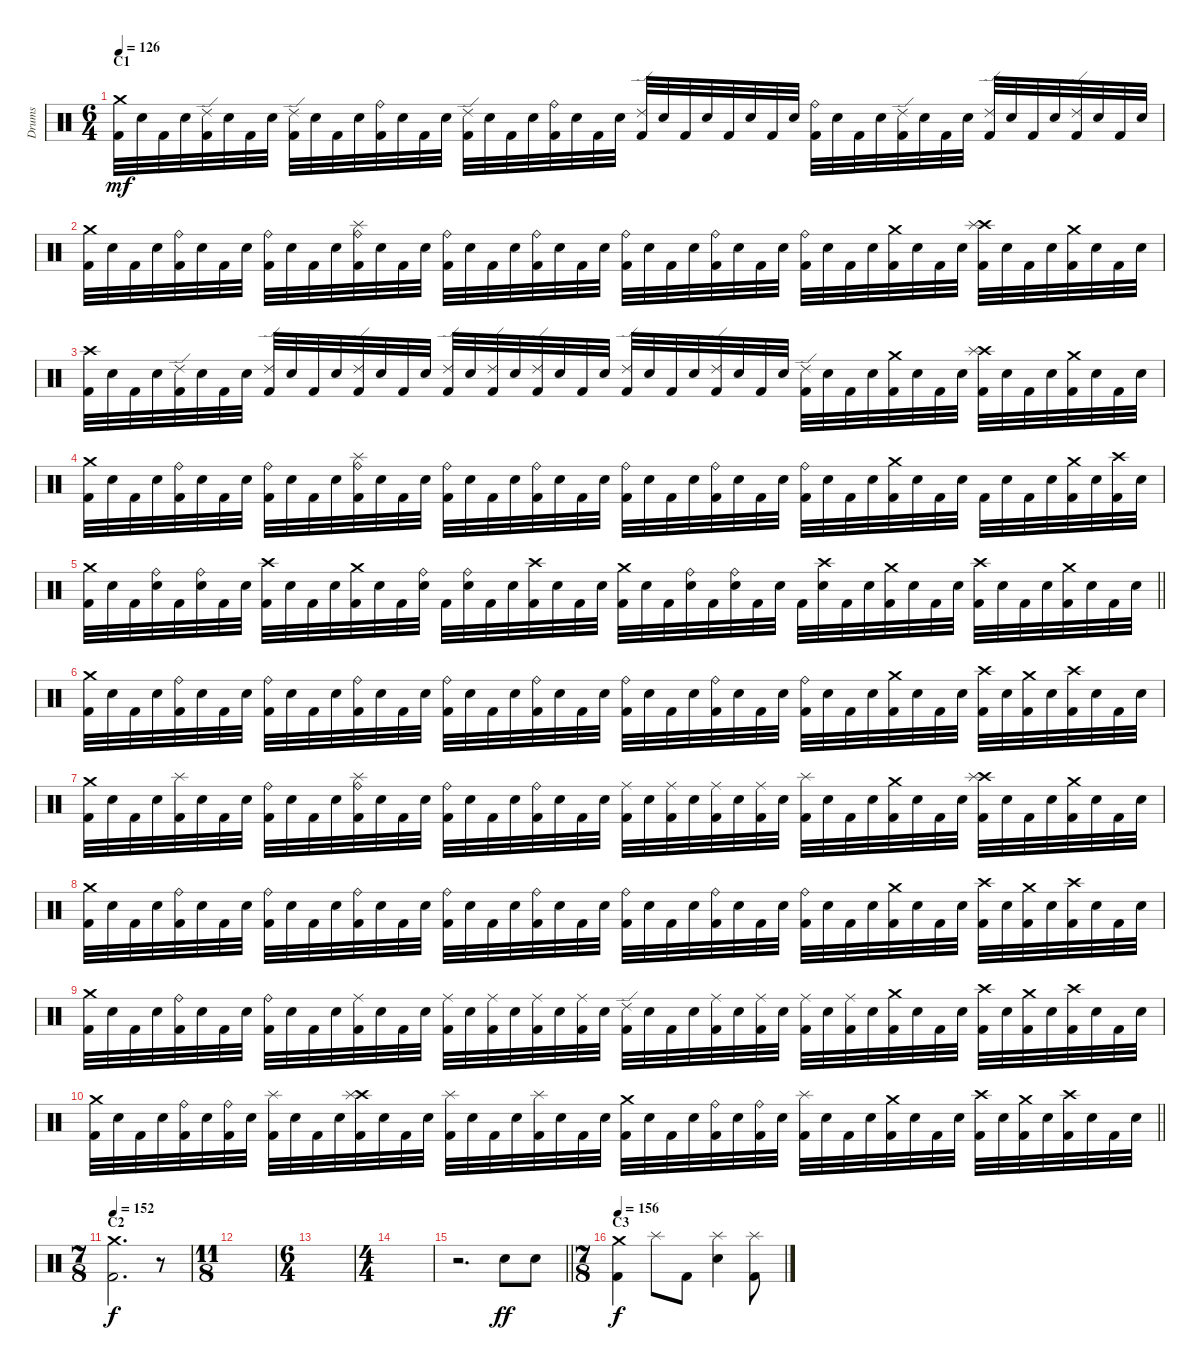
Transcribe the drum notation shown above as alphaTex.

\track ("Drums" "Drums") {instrument percussion}
\staff {score}
\articulation defaults
\ts (6 4)
\section ("" "C1")
\tempo 126
\clef neutral
\ks c
("Crash medium (hit)" "Kick (hit) 2").32{dy mf} "Electric Snare (hit)".32 "Kick (hit) 2".32 "Electric Snare (hit)".32 ("Ride (edge) 2" "Kick (hit) 2").32 "Electric Snare (hit)".32 "Kick (hit) 2".32 "Electric Snare (hit)".32 ("Ride (edge) 2" "Kick (hit) 2").32 "Electric Snare (hit)".32 "Kick (hit) 2".32 "Electric Snare (hit)".32 ("Ride (bell)" "Kick (hit) 2").32 "Electric Snare (hit)".32 "Kick (hit) 2".32 "Electric Snare (hit)".32 ("Ride (edge) 2" "Kick (hit) 2").32 "Electric Snare (hit)".32 "Kick (hit) 2".32 "Electric Snare (hit)".32 ("Ride (bell)" "Kick (hit) 2").32 "Electric Snare (hit)".32 "Kick (hit) 2".32 "Electric Snare (hit)".32 ("Ride (edge) 2" "Kick (hit) 2").32 "Electric Snare (hit)".32 "Kick (hit) 2".32 "Electric Snare (hit)".32 "Kick (hit) 2".32 "Electric Snare (hit)".32 "Kick (hit) 2".32 "Electric Snare (hit)".32 ("Ride (bell)" "Kick (hit) 2").32 "Electric Snare (hit)".32 "Kick (hit) 2".32 "Electric Snare (hit)".32 ("Ride (edge) 2" "Kick (hit) 2").32 "Electric Snare (hit)".32 "Kick (hit) 2".32 "Electric Snare (hit)".32 ("Ride (edge) 2" "Kick (hit) 2").32 "Electric Snare (hit)".32 "Kick (hit) 2".32 "Electric Snare (hit)".32 ("Ride (edge) 2" "Kick (hit) 2").32 "Electric Snare (hit)".32 "Kick (hit) 2".32 "Electric Snare (hit)".32 |
("Crash medium (hit)" "Kick (hit) 2").32 "Electric Snare (hit)".32 "Kick (hit) 2".32 "Electric Snare (hit)".32 ("Ride (bell)" "Kick (hit) 2").32 "Electric Snare (hit)".32 "Kick (hit) 2".32 "Electric Snare (hit)".32 ("Ride (bell)" "Kick (hit) 2").32 "Electric Snare (hit)".32 "Kick (hit) 2".32 "Electric Snare (hit)".32 ("Ride (bell)" "Splash (hit)" "Kick (hit) 2").32 "Electric Snare (hit)".32 "Kick (hit) 2".32 "Electric Snare (hit)".32 ("Ride (bell)" "Kick (hit) 2").32 "Electric Snare (hit)".32 "Kick (hit) 2".32 "Electric Snare (hit)".32 ("Ride (bell)" "Kick (hit) 2").32 "Electric Snare (hit)".32 "Kick (hit) 2".32 "Electric Snare (hit)".32 ("Ride (bell)" "Kick (hit) 2").32 "Electric Snare (hit)".32 "Kick (hit) 2".32 "Electric Snare (hit)".32 ("Ride (bell)" "Kick (hit) 2").32 "Electric Snare (hit)".32 "Kick (hit) 2".32 "Electric Snare (hit)".32 ("Ride (bell)" "Kick (hit) 2").32 "Electric Snare (hit)".32 "Kick (hit) 2".32 "Electric Snare (hit)".32 ("Crash medium (hit)" "Kick (hit) 2").32 "Electric Snare (hit)".32 "Kick (hit) 2".32 "Electric Snare (hit)".32 ("Crash high (hit)" "Splash (hit)" "Kick (hit) 2").32 "Electric Snare (hit)".32 "Kick (hit) 2".32 "Electric Snare (hit)".32 ("Crash medium (hit)" "Kick (hit) 2").32 "Electric Snare (hit)".32 "Kick (hit) 2".32 "Electric Snare (hit)".32 |
("Crash high (hit)" "Kick (hit) 2").32 "Electric Snare (hit)".32 "Kick (hit) 2".32 "Electric Snare (hit)".32 ("Ride (edge) 2" "Kick (hit) 2").32 "Electric Snare (hit)".32 "Kick (hit) 2".32 "Electric Snare (hit)".32 ("Ride (edge) 2" "Kick (hit) 2").32 "Electric Snare (hit)".32 "Kick (hit) 2".32 "Electric Snare (hit)".32 ("Ride (edge) 2" "Kick (hit) 2").32 "Electric Snare (hit)".32 "Kick (hit) 2".32 "Electric Snare (hit)".32 ("Ride (edge) 2" "Kick (hit) 2").32 "Electric Snare (hit)".32 ("Ride (edge) 2" "Kick (hit) 2").32 "Electric Snare (hit)".32 ("Ride (edge) 2" "Kick (hit) 2").32 "Electric Snare (hit)".32 "Kick (hit) 2".32 "Electric Snare (hit)".32 ("Ride (edge) 2" "Kick (hit) 2").32 "Electric Snare (hit)".32 "Kick (hit) 2".32 "Electric Snare (hit)".32 ("Ride (edge) 2" "Kick (hit) 2").32 "Electric Snare (hit)".32 "Kick (hit) 2".32 "Electric Snare (hit)".32 ("Ride (edge) 2" "Kick (hit) 2").32 "Electric Snare (hit)".32 "Kick (hit) 2".32 "Electric Snare (hit)".32 ("Crash medium (hit)" "Kick (hit) 2").32 "Electric Snare (hit)".32 "Kick (hit) 2".32 "Electric Snare (hit)".32 ("Crash high (hit)" "Splash (hit)" "Kick (hit) 2").32 "Electric Snare (hit)".32 "Kick (hit) 2".32 "Electric Snare (hit)".32 ("Crash medium (hit)" "Kick (hit) 2").32 "Electric Snare (hit)".32 "Kick (hit) 2".32 "Electric Snare (hit)".32 |
("Crash medium (hit)" "Kick (hit) 2").32 "Electric Snare (hit)".32 "Kick (hit) 2".32 "Electric Snare (hit)".32 ("Ride (bell)" "Kick (hit) 2").32 "Electric Snare (hit)".32 "Kick (hit) 2".32 "Electric Snare (hit)".32 ("Ride (bell)" "Kick (hit) 2").32 "Electric Snare (hit)".32 "Kick (hit) 2".32 "Electric Snare (hit)".32 ("Ride (bell)" "Splash (hit)" "Kick (hit) 2").32 "Electric Snare (hit)".32 "Kick (hit) 2".32 "Electric Snare (hit)".32 ("Ride (bell)" "Kick (hit) 2").32 "Electric Snare (hit)".32 "Kick (hit) 2".32 "Electric Snare (hit)".32 ("Ride (bell)" "Kick (hit) 2").32 "Electric Snare (hit)".32 "Kick (hit) 2".32 "Electric Snare (hit)".32 ("Ride (bell)" "Kick (hit) 2").32 "Electric Snare (hit)".32 "Kick (hit) 2".32 "Electric Snare (hit)".32 ("Ride (bell)" "Kick (hit) 2").32 "Electric Snare (hit)".32 "Kick (hit) 2".32 "Electric Snare (hit)".32 ("Ride (bell)" "Kick (hit) 2").32 "Electric Snare (hit)".32 "Kick (hit) 2".32 "Electric Snare (hit)".32 ("Crash medium (hit)" "Kick (hit) 2").32 "Electric Snare (hit)".32 "Kick (hit) 2".32 "Electric Snare (hit)".32 "Kick (hit) 2".32 "Electric Snare (hit)".32 "Kick (hit) 2".32 "Electric Snare (hit)".32 ("Crash medium (hit)" "Kick (hit) 2").32 "Electric Snare (hit)".32 ("Crash high (hit)" "Kick (hit) 2").32 "Electric Snare (hit)".32 |
\barLineRight lightlight
("Crash medium (hit)" "Kick (hit) 2").32 "Electric Snare (hit)".32 "Kick (hit) 2".32 ("Ride (bell)" "Electric Snare (hit)").32 "Kick (hit) 2".32 ("Ride (bell)" "Electric Snare (hit)").32 "Kick (hit) 2".32 "Electric Snare (hit)".32 ("Crash high (hit)" "Kick (hit) 2").32 "Electric Snare (hit)".32 "Kick (hit) 2".32 "Electric Snare (hit)".32 ("Crash medium (hit)" "Kick (hit) 2").32 "Electric Snare (hit)".32 "Kick (hit) 2".32 ("Ride (bell)" "Electric Snare (hit)").32 "Kick (hit) 2".32 ("Ride (bell)" "Electric Snare (hit)").32 "Kick (hit) 2".32 "Electric Snare (hit)".32 ("Crash high (hit)" "Kick (hit) 2").32 "Electric Snare (hit)".32 "Kick (hit) 2".32 "Electric Snare (hit)".32 ("Crash medium (hit)" "Kick (hit) 2").32 "Electric Snare (hit)".32 "Kick (hit) 2".32 ("Ride (bell)" "Electric Snare (hit)").32 "Kick (hit) 2".32 ("Ride (bell)" "Electric Snare (hit)").32 "Kick (hit) 2".32 "Electric Snare (hit)".32 "Kick (hit) 2".32 ("Crash high (hit)" "Electric Snare (hit)").32 "Kick (hit) 2".32 "Electric Snare (hit)".32 ("Crash medium (hit)" "Kick (hit) 2").32 "Electric Snare (hit)".32 "Kick (hit) 2".32 "Electric Snare (hit)".32 ("Crash high (hit)" "Kick (hit) 2").32 "Electric Snare (hit)".32 "Kick (hit) 2".32 "Electric Snare (hit)".32 ("Crash medium (hit)" "Kick (hit) 2").32 "Electric Snare (hit)".32 "Kick (hit) 2".32 "Electric Snare (hit)".32 |
\section ("" "")
("Crash medium (hit)" "Kick (hit) 2").32 "Electric Snare (hit)".32 "Kick (hit) 2".32 "Electric Snare (hit)".32 ("Ride (bell)" "Kick (hit) 2").32 "Electric Snare (hit)".32 "Kick (hit) 2".32 "Electric Snare (hit)".32 ("Ride (bell)" "Kick (hit) 2").32 "Electric Snare (hit)".32 "Kick (hit) 2".32 "Electric Snare (hit)".32 ("Ride (bell)" "Kick (hit) 2").32 "Electric Snare (hit)".32 "Kick (hit) 2".32 "Electric Snare (hit)".32 ("Ride (bell)" "Kick (hit) 2").32 "Electric Snare (hit)".32 "Kick (hit) 2".32 "Electric Snare (hit)".32 ("Ride (bell)" "Kick (hit) 2").32 "Electric Snare (hit)".32 "Kick (hit) 2".32 "Electric Snare (hit)".32 ("Ride (bell)" "Kick (hit) 2").32 "Electric Snare (hit)".32 "Kick (hit) 2".32 "Electric Snare (hit)".32 ("Ride (bell)" "Kick (hit) 2").32 "Electric Snare (hit)".32 "Kick (hit) 2".32 "Electric Snare (hit)".32 ("Ride (bell)" "Kick (hit) 2").32 "Electric Snare (hit)".32 "Kick (hit) 2".32 "Electric Snare (hit)".32 ("Crash medium (hit)" "Kick (hit) 2").32 "Electric Snare (hit)".32 "Kick (hit) 2".32 "Electric Snare (hit)".32 ("Crash high (hit)" "Kick (hit) 2").32 "Electric Snare (hit)".32 ("Crash medium (hit)" "Kick (hit) 2").32 "Electric Snare (hit)".32 ("Crash high (hit)" "Kick (hit) 2").32 "Electric Snare (hit)".32 "Kick (hit) 2".32 "Electric Snare (hit)".32 |
("Crash medium (hit)" "Kick (hit) 2").32 "Electric Snare (hit)".32 "Kick (hit) 2".32 "Electric Snare (hit)".32 ("Splash (hit)" "Kick (hit) 2").32 "Electric Snare (hit)".32 "Kick (hit) 2".32 "Electric Snare (hit)".32 ("Ride (bell)" "Kick (hit) 2").32 "Electric Snare (hit)".32 "Kick (hit) 2".32 "Electric Snare (hit)".32 ("Ride (bell)" "Splash (hit)" "Kick (hit) 2").32 "Electric Snare (hit)".32 "Kick (hit) 2".32 "Electric Snare (hit)".32 ("Ride (bell)" "Kick (hit) 2").32 "Electric Snare (hit)".32 "Kick (hit) 2".32 "Electric Snare (hit)".32 ("Ride (bell)" "Kick (hit) 2").32 "Electric Snare (hit)".32 "Kick (hit) 2".32 "Electric Snare (hit)".32 ("Ride (middle)" "Kick (hit) 2").32 "Electric Snare (hit)".32 ("Ride (middle)" "Kick (hit) 2").32 "Electric Snare (hit)".32 ("Ride (middle)" "Kick (hit) 2").32 "Electric Snare (hit)".32 ("Ride (middle)" "Kick (hit) 2").32 "Electric Snare (hit)".32 ("Splash (hit)" "Kick (hit) 2").32 "Electric Snare (hit)".32 "Kick (hit) 2".32 "Electric Snare (hit)".32 ("Crash medium (hit)" "Kick (hit) 2").32 "Electric Snare (hit)".32 "Kick (hit) 2".32 "Electric Snare (hit)".32 ("Crash high (hit)" "Splash (hit)" "Kick (hit) 2").32 "Electric Snare (hit)".32 "Kick (hit) 2".32 "Electric Snare (hit)".32 ("Crash medium (hit)" "Kick (hit) 2").32 "Electric Snare (hit)".32 "Kick (hit) 2".32 "Electric Snare (hit)".32 |
("Crash medium (hit)" "Kick (hit) 2").32 "Electric Snare (hit)".32 "Kick (hit) 2".32 "Electric Snare (hit)".32 ("Ride (bell)" "Kick (hit) 2").32 "Electric Snare (hit)".32 "Kick (hit) 2".32 "Electric Snare (hit)".32 ("Ride (bell)" "Kick (hit) 2").32 "Electric Snare (hit)".32 "Kick (hit) 2".32 "Electric Snare (hit)".32 ("Ride (bell)" "Kick (hit) 2").32 "Electric Snare (hit)".32 "Kick (hit) 2".32 "Electric Snare (hit)".32 ("Ride (bell)" "Kick (hit) 2").32 "Electric Snare (hit)".32 "Kick (hit) 2".32 "Electric Snare (hit)".32 ("Ride (bell)" "Kick (hit) 2").32 "Electric Snare (hit)".32 "Kick (hit) 2".32 "Electric Snare (hit)".32 ("Ride (bell)" "Kick (hit) 2").32 "Electric Snare (hit)".32 "Kick (hit) 2".32 "Electric Snare (hit)".32 ("Ride (bell)" "Kick (hit) 2").32 "Electric Snare (hit)".32 "Kick (hit) 2".32 "Electric Snare (hit)".32 ("Ride (bell)" "Kick (hit) 2").32 "Electric Snare (hit)".32 "Kick (hit) 2".32 "Electric Snare (hit)".32 ("Crash medium (hit)" "Kick (hit) 2").32 "Electric Snare (hit)".32 "Kick (hit) 2".32 "Electric Snare (hit)".32 ("Crash high (hit)" "Kick (hit) 2").32 "Electric Snare (hit)".32 ("Crash medium (hit)" "Kick (hit) 2").32 "Electric Snare (hit)".32 ("Crash high (hit)" "Kick (hit) 2").32 "Electric Snare (hit)".32 "Kick (hit) 2".32 "Electric Snare (hit)".32 |
("Crash medium (hit)" "Kick (hit) 2").32 "Electric Snare (hit)".32 "Kick (hit) 2".32 "Electric Snare (hit)".32 ("Ride (bell)" "Kick (hit) 2").32 "Electric Snare (hit)".32 "Kick (hit) 2".32 "Electric Snare (hit)".32 ("Ride (bell)" "Kick (hit) 2").32 "Electric Snare (hit)".32 "Kick (hit) 2".32 "Electric Snare (hit)".32 ("Ride (middle)" "Kick (hit) 2").32 "Electric Snare (hit)".32 "Kick (hit) 2".32 "Electric Snare (hit)".32 ("Ride (middle)" "Kick (hit) 2").32 "Electric Snare (hit)".32 ("Ride (middle)" "Kick (hit) 2").32 "Electric Snare (hit)".32 ("Ride (middle)" "Kick (hit) 2").32 "Electric Snare (hit)".32 ("Ride (middle)" "Kick (hit) 2").32 "Electric Snare (hit)".32 ("Ride (edge) 2" "Kick (hit) 2").32 "Electric Snare (hit)".32 "Kick (hit) 2".32 "Electric Snare (hit)".32 ("Ride (middle)" "Kick (hit) 2").32 "Electric Snare (hit)".32 ("Ride (middle)" "Kick (hit) 2").32 "Electric Snare (hit)".32 ("Ride (middle)" "Kick (hit) 2").32 "Electric Snare (hit)".32 ("Ride (middle)" "Kick (hit) 2").32 "Electric Snare (hit)".32 ("Crash medium (hit)" "Kick (hit) 2").32 "Electric Snare (hit)".32 "Kick (hit) 2".32 "Electric Snare (hit)".32 ("Crash high (hit)" "Kick (hit) 2").32 "Electric Snare (hit)".32 ("Crash medium (hit)" "Kick (hit) 2").32 "Electric Snare (hit)".32 ("Crash high (hit)" "Kick (hit) 2").32 "Electric Snare (hit)".32 "Kick (hit) 2".32 "Electric Snare (hit)".32 |
\barLineRight lightlight
("Crash medium (hit)" "Kick (hit) 2").32 "Electric Snare (hit)".32 "Kick (hit) 2".32 "Electric Snare (hit)".32 ("Ride (bell)" "Kick (hit) 2").32 "Electric Snare (hit)".32 ("Ride (bell)" "Kick (hit) 2").32 "Electric Snare (hit)".32 ("Splash (hit)" "Kick (hit) 2").32 "Electric Snare (hit)".32 "Kick (hit) 2".32 "Electric Snare (hit)".32 ("Crash high (hit)" "Splash (hit)" "Kick (hit) 2").32 "Electric Snare (hit)".32 "Kick (hit) 2".32 "Electric Snare (hit)".32 ("Splash (hit)" "Kick (hit) 2").32 "Electric Snare (hit)".32 "Kick (hit) 2".32 "Electric Snare (hit)".32 ("Splash (hit)" "Kick (hit) 2").32 "Electric Snare (hit)".32 "Kick (hit) 2".32 "Electric Snare (hit)".32 ("Crash medium (hit)" "Kick (hit) 2").32 "Electric Snare (hit)".32 "Kick (hit) 2".32 "Electric Snare (hit)".32 ("Ride (bell)" "Kick (hit) 2").32 "Electric Snare (hit)".32 ("Ride (bell)" "Kick (hit) 2").32 "Electric Snare (hit)".32 ("Splash (hit)" "Kick (hit) 2").32 "Electric Snare (hit)".32 "Kick (hit) 2".32 "Electric Snare (hit)".32 ("Crash medium (hit)" "Kick (hit) 2").32 "Electric Snare (hit)".32 "Kick (hit) 2".32 "Electric Snare (hit)".32 ("Crash high (hit)" "Kick (hit) 2").32 "Electric Snare (hit)".32 ("Crash medium (hit)" "Kick (hit) 2").32 "Electric Snare (hit)".32 ("Crash high (hit)" "Kick (hit) 2").32 "Electric Snare (hit)".32 "Kick (hit) 2".32 "Electric Snare (hit)".32 |
\ts (7 8)
\section ("" "C2")
\tempo 152
("Crash medium (hit)" "Kick (hit) 2").2{d dy f} r.8 |
\ts (11 8)
|
\ts (6 4)
|
\ts (4 4)
|
\barLineRight lightlight
r.2{d} "Electric Snare (hit)".8{dy ff} "Electric Snare (hit)".8 |
\ts (7 8)
\section ("" "C3")
\tempo 156
("Crash medium (hit)" "Kick (hit) 2").4{dy f} "Splash (hit)".8 "Kick (hit) 2".8 ("Splash (hit)" "Electric Snare (hit)").4 ("Splash (hit)" "Kick (hit) 2").8
